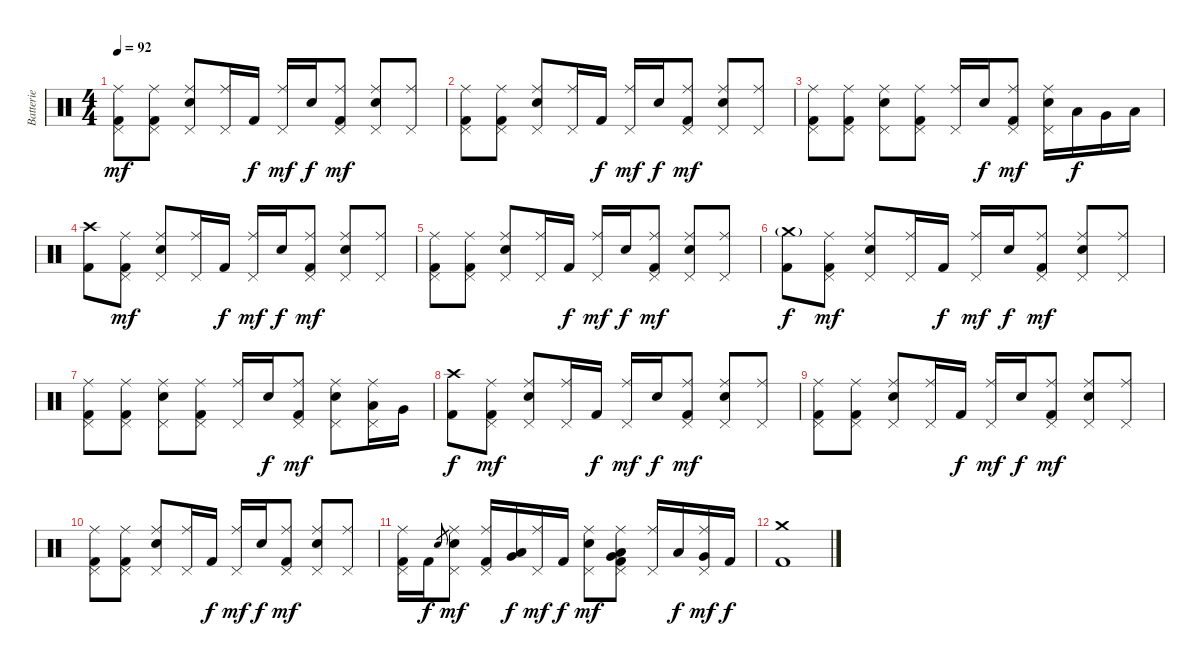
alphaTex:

\track ("Batterie" "Batterie") {instrument percussion}
\staff {score}
\articulation defaults
\ts (4 4)
\tempo 92
\clef neutral
\ks c
("Ride (middle)" "Pedal Hi-Hat (hit)" "Kick (hit) 2").8{dy mf} ("Ride (middle)" "Pedal Hi-Hat (hit)" "Kick (hit) 2").8 ("Ride (middle)" "Pedal Hi-Hat (hit)" "Electric Snare (hit)").8 ("Ride (middle)" "Pedal Hi-Hat (hit)").16 "Kick (hit) 2".16{dy f} ("Ride (middle)" "Pedal Hi-Hat (hit)").16{dy mf} "Electric Snare (hit)".16{dy f} ("Ride (middle)" "Pedal Hi-Hat (hit)" "Kick (hit) 2").8{dy mf} ("Ride (middle)" "Pedal Hi-Hat (hit)" "Electric Snare (hit)").8 ("Ride (middle)" "Pedal Hi-Hat (hit)").8 |
("Ride (middle)" "Pedal Hi-Hat (hit)" "Kick (hit) 2").8 ("Ride (middle)" "Pedal Hi-Hat (hit)" "Kick (hit) 2").8 ("Ride (middle)" "Pedal Hi-Hat (hit)" "Electric Snare (hit)").8 ("Ride (middle)" "Pedal Hi-Hat (hit)").16 "Kick (hit) 2".16{dy f} ("Ride (middle)" "Pedal Hi-Hat (hit)").16{dy mf} "Electric Snare (hit)".16{dy f} ("Ride (middle)" "Pedal Hi-Hat (hit)" "Kick (hit) 2").8{dy mf} ("Ride (middle)" "Pedal Hi-Hat (hit)" "Electric Snare (hit)").8 ("Ride (middle)" "Pedal Hi-Hat (hit)").8 |
("Ride (middle)" "Pedal Hi-Hat (hit)" "Kick (hit) 2").8 ("Ride (middle)" "Pedal Hi-Hat (hit)" "Kick (hit) 2").8 ("Ride (middle)" "Pedal Hi-Hat (hit)" "Electric Snare (hit)").8 ("Ride (middle)" "Pedal Hi-Hat (hit)" "Kick (hit) 2").8 ("Ride (middle)" "Pedal Hi-Hat (hit)").16 "Electric Snare (hit)".16{dy f} ("Ride (middle)" "Pedal Hi-Hat (hit)" "Kick (hit) 2").8{dy mf} ("Ride (middle)" "Pedal Hi-Hat (hit)" "Electric Snare (hit)").16 "Low Tom (hit)".16{dy f} "Very Low Tom (hit)".16 "Low Floor Tom (hit)".16 |
("Crash high (hit)" "Kick (hit) 2").8 ("Ride (middle)" "Pedal Hi-Hat (hit)" "Kick (hit) 2").8{dy mf} ("Ride (middle)" "Pedal Hi-Hat (hit)" "Electric Snare (hit)").8 ("Ride (middle)" "Pedal Hi-Hat (hit)").16 "Kick (hit) 2".16{dy f} ("Ride (middle)" "Pedal Hi-Hat (hit)").16{dy mf} "Electric Snare (hit)".16{dy f} ("Ride (middle)" "Pedal Hi-Hat (hit)" "Kick (hit) 2").8{dy mf} ("Ride (middle)" "Pedal Hi-Hat (hit)" "Electric Snare (hit)").8 ("Ride (middle)" "Pedal Hi-Hat (hit)").8 |
("Ride (middle)" "Pedal Hi-Hat (hit)" "Kick (hit) 2").8 ("Ride (middle)" "Pedal Hi-Hat (hit)" "Kick (hit) 2").8 ("Ride (middle)" "Pedal Hi-Hat (hit)" "Electric Snare (hit)").8 ("Ride (middle)" "Pedal Hi-Hat (hit)").16 "Kick (hit) 2".16{dy f} ("Ride (middle)" "Pedal Hi-Hat (hit)").16{dy mf} "Electric Snare (hit)".16{dy f} ("Ride (middle)" "Pedal Hi-Hat (hit)" "Kick (hit) 2").8{dy mf} ("Ride (middle)" "Pedal Hi-Hat (hit)" "Electric Snare (hit)").8 ("Ride (middle)" "Pedal Hi-Hat (hit)").8 |
("Crash medium (hit)"{g} "Kick (hit) 2").8{dy f} ("Ride (middle)" "Pedal Hi-Hat (hit)" "Kick (hit) 2").8{dy mf} ("Ride (middle)" "Pedal Hi-Hat (hit)" "Electric Snare (hit)").8 ("Ride (middle)" "Pedal Hi-Hat (hit)").16 "Kick (hit) 2".16{dy f} ("Ride (middle)" "Pedal Hi-Hat (hit)").16{dy mf} "Electric Snare (hit)".16{dy f} ("Ride (middle)" "Pedal Hi-Hat (hit)" "Kick (hit) 2").8{dy mf} ("Ride (middle)" "Pedal Hi-Hat (hit)" "Electric Snare (hit)").8 ("Ride (middle)" "Pedal Hi-Hat (hit)").8 |
("Ride (middle)" "Pedal Hi-Hat (hit)" "Kick (hit) 2").8 ("Ride (middle)" "Pedal Hi-Hat (hit)" "Kick (hit) 2").8 ("Ride (middle)" "Pedal Hi-Hat (hit)" "Electric Snare (hit)").8 ("Ride (middle)" "Pedal Hi-Hat (hit)" "Kick (hit) 2").8 ("Ride (middle)" "Pedal Hi-Hat (hit)").16 "Electric Snare (hit)".16{dy f} ("Ride (middle)" "Pedal Hi-Hat (hit)" "Kick (hit) 2").8{dy mf} ("Ride (middle)" "Pedal Hi-Hat (hit)" "Electric Snare (hit)").8 ("Ride (middle)" "Pedal Hi-Hat (hit)" "Low Tom (hit)").16 "Very Low Tom (hit)".16 |
("Crash high (hit)" "Kick (hit) 2").8{dy f} ("Ride (middle)" "Pedal Hi-Hat (hit)" "Kick (hit) 2").8{dy mf} ("Ride (middle)" "Pedal Hi-Hat (hit)" "Electric Snare (hit)").8 ("Ride (middle)" "Pedal Hi-Hat (hit)").16 "Kick (hit) 2".16{dy f} ("Ride (middle)" "Pedal Hi-Hat (hit)").16{dy mf} "Electric Snare (hit)".16{dy f} ("Ride (middle)" "Pedal Hi-Hat (hit)" "Kick (hit) 2").8{dy mf} ("Ride (middle)" "Pedal Hi-Hat (hit)" "Electric Snare (hit)").8 ("Ride (middle)" "Pedal Hi-Hat (hit)").8 |
("Ride (middle)" "Pedal Hi-Hat (hit)" "Kick (hit) 2").8 ("Ride (middle)" "Pedal Hi-Hat (hit)" "Kick (hit) 2").8 ("Ride (middle)" "Pedal Hi-Hat (hit)" "Electric Snare (hit)").8 ("Ride (middle)" "Pedal Hi-Hat (hit)").16 "Kick (hit) 2".16{dy f} ("Ride (middle)" "Pedal Hi-Hat (hit)").16{dy mf} "Electric Snare (hit)".16{dy f} ("Ride (middle)" "Pedal Hi-Hat (hit)" "Kick (hit) 2").8{dy mf} ("Ride (middle)" "Pedal Hi-Hat (hit)" "Electric Snare (hit)").8 ("Ride (middle)" "Pedal Hi-Hat (hit)").8 |
("Ride (middle)" "Pedal Hi-Hat (hit)" "Kick (hit) 2").8 ("Ride (middle)" "Pedal Hi-Hat (hit)" "Kick (hit) 2").8 ("Ride (middle)" "Pedal Hi-Hat (hit)" "Electric Snare (hit)").8 ("Ride (middle)" "Pedal Hi-Hat (hit)").16 "Kick (hit) 2".16{dy f} ("Ride (middle)" "Pedal Hi-Hat (hit)").16{dy mf} "Electric Snare (hit)".16{dy f} ("Ride (middle)" "Pedal Hi-Hat (hit)" "Kick (hit) 2").8{dy mf} ("Ride (middle)" "Pedal Hi-Hat (hit)" "Electric Snare (hit)").8 ("Ride (middle)" "Pedal Hi-Hat (hit)").8 |
("Ride (middle)" "Pedal Hi-Hat (hit)" "Kick (hit) 2").16 "Kick (hit) 2".16{dy f} "Electric Snare (hit)".8{gr} ("Ride (middle)" "Pedal Hi-Hat (hit)" "Electric Snare (hit)").8{dy mf} ("Ride (middle)" "Pedal Hi-Hat (hit)" "Kick (hit) 2").16 ("Low Tom (hit)" "Very Low Tom (hit)").16{dy f} ("Ride (middle)" "Pedal Hi-Hat (hit)").16{dy mf} "Kick (hit) 2".16{dy f} ("Ride (middle)" "Pedal Hi-Hat (hit)" "Electric Snare (hit)").8{dy mf} ("Ride (middle)" "Pedal Hi-Hat (hit)" "Low Tom (hit)" "Very Low Tom (hit)" "Kick (hit) 2").8 ("Ride (middle)" "Pedal Hi-Hat (hit)").16 "Low Tom (hit)".16{dy f} ("Ride (middle)" "Pedal Hi-Hat (hit)" "Very Low Tom (hit)").16{dy mf} "Kick (hit) 2".16{dy f} |
("Crash medium (hit)" "Kick (hit) 2").1
